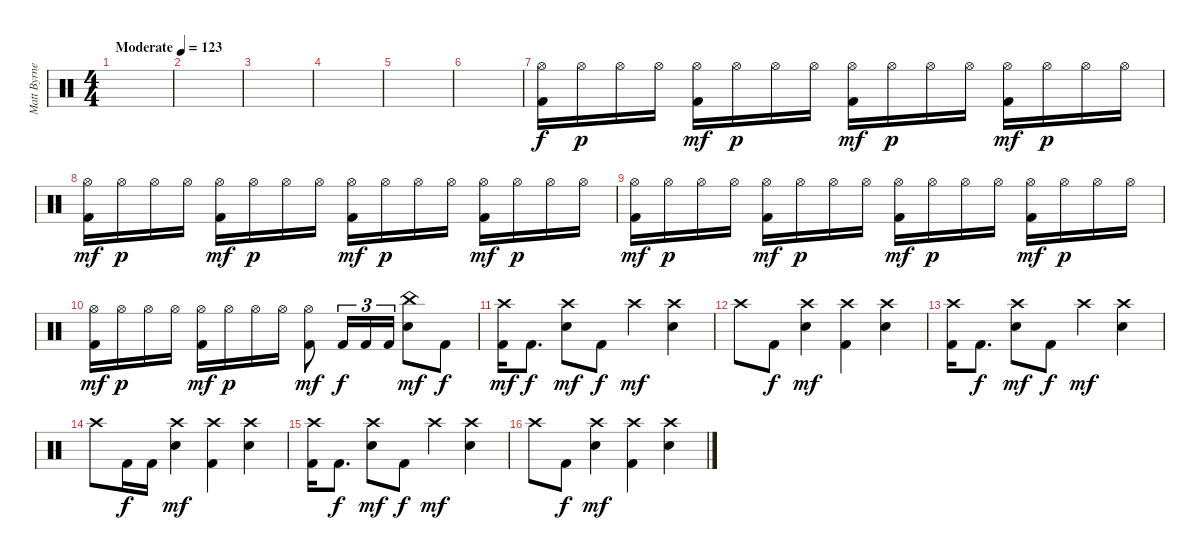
\track ("Matt Byrne" "Matt Byrne") {instrument percussion}
\staff {score}
\articulation defaults
\ts (4 4)
\tempo (123 "Moderate")
\clef neutral
\ks c
|
|
|
|
|
|
("Hi-Hat (open)" "Kick (hit) 2").16 "Hi-Hat (open)".16{dy p} "Hi-Hat (open)".16 "Hi-Hat (open)".16 ("Hi-Hat (open)" "Kick (hit) 2").16{dy mf} "Hi-Hat (open)".16{dy p} "Hi-Hat (open)".16 "Hi-Hat (open)".16 ("Hi-Hat (open)" "Kick (hit) 2").16{dy mf} "Hi-Hat (open)".16{dy p} "Hi-Hat (open)".16 "Hi-Hat (open)".16 ("Hi-Hat (open)" "Kick (hit) 2").16{dy mf} "Hi-Hat (open)".16{dy p} "Hi-Hat (open)".16 "Hi-Hat (open)".16 |
("Hi-Hat (open)" "Kick (hit) 2").16{dy mf} "Hi-Hat (open)".16{dy p} "Hi-Hat (open)".16 "Hi-Hat (open)".16 ("Hi-Hat (open)" "Kick (hit) 2").16{dy mf} "Hi-Hat (open)".16{dy p} "Hi-Hat (open)".16 "Hi-Hat (open)".16 ("Hi-Hat (open)" "Kick (hit) 2").16{dy mf} "Hi-Hat (open)".16{dy p} "Hi-Hat (open)".16 "Hi-Hat (open)".16 ("Hi-Hat (open)" "Kick (hit) 2").16{dy mf} "Hi-Hat (open)".16{dy p} "Hi-Hat (open)".16 "Hi-Hat (open)".16 |
("Hi-Hat (open)" "Kick (hit) 2").16{dy mf} "Hi-Hat (open)".16{dy p} "Hi-Hat (open)".16 "Hi-Hat (open)".16 ("Hi-Hat (open)" "Kick (hit) 2").16{dy mf} "Hi-Hat (open)".16{dy p} "Hi-Hat (open)".16 "Hi-Hat (open)".16 ("Hi-Hat (open)" "Kick (hit) 2").16{dy mf} "Hi-Hat (open)".16{dy p} "Hi-Hat (open)".16 "Hi-Hat (open)".16 ("Hi-Hat (open)" "Kick (hit) 2").16{dy mf} "Hi-Hat (open)".16{dy p} "Hi-Hat (open)".16 "Hi-Hat (open)".16 |
("Hi-Hat (open)" "Kick (hit) 2").16{dy mf} "Hi-Hat (open)".16{dy p} "Hi-Hat (open)".16 "Hi-Hat (open)".16 ("Hi-Hat (open)" "Kick (hit) 2").16{dy mf} "Hi-Hat (open)".16{dy p} "Hi-Hat (open)".16 "Hi-Hat (open)".16 ("Hi-Hat (open)" "Kick (hit) 2").8{dy mf} "Kick (hit) 2".16{tu (3 2) dy f} "Kick (hit) 2".16{tu (3 2)} "Kick (hit) 2".16{tu (3 2)} ("China (hit)" "Electric Snare (hit)").8{dy mf} "Kick (hit) 2".8{dy f} |
("Crash high (hit)" "Kick (hit) 2").16{dy mf} "Kick (hit) 2".8{d dy f} ("Crash high (hit)" "Electric Snare (hit)").8{dy mf} "Kick (hit) 2".8{dy f} "Crash high (hit)".4{dy mf} ("Crash high (hit)" "Electric Snare (hit)").4 |
"Crash high (hit)".8 "Kick (hit) 2".8{dy f} ("Crash high (hit)" "Electric Snare (hit)").4{dy mf} ("Crash high (hit)" "Kick (hit) 2").4 ("Crash high (hit)" "Electric Snare (hit)").4 |
("Crash high (hit)" "Kick (hit) 2").16 "Kick (hit) 2".8{d dy f} ("Crash high (hit)" "Electric Snare (hit)").8{dy mf} "Kick (hit) 2".8{dy f} "Crash high (hit)".4{dy mf} ("Crash high (hit)" "Electric Snare (hit)").4 |
"Crash high (hit)".8 "Kick (hit) 2".16{dy f} "Kick (hit) 2".16 ("Crash high (hit)" "Electric Snare (hit)").4{dy mf} ("Crash high (hit)" "Kick (hit) 2").4 ("Crash high (hit)" "Electric Snare (hit)").4 |
("Crash high (hit)" "Kick (hit) 2").16 "Kick (hit) 2".8{d dy f} ("Crash high (hit)" "Electric Snare (hit)").8{dy mf} "Kick (hit) 2".8{dy f} "Crash high (hit)".4{dy mf} ("Crash high (hit)" "Electric Snare (hit)").4 |
"Crash high (hit)".8 "Kick (hit) 2".8{dy f} ("Crash high (hit)" "Electric Snare (hit)").4{dy mf} ("Crash high (hit)" "Kick (hit) 2").4 ("Crash high (hit)" "Electric Snare (hit)").4
